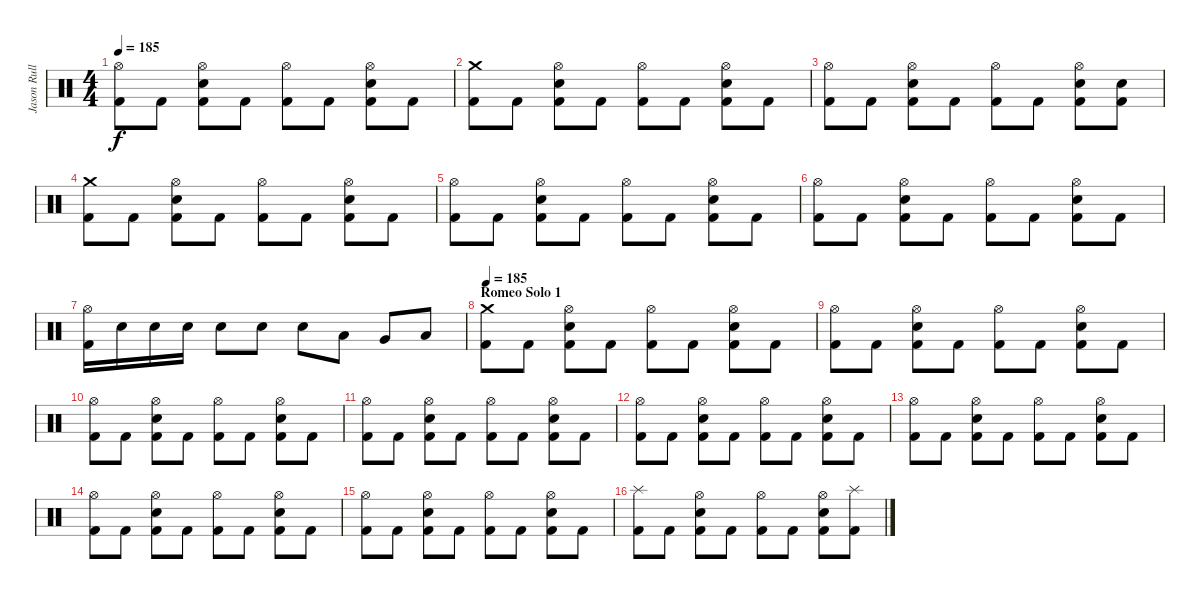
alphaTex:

\track ("Jason Rullo" "Jason Rull") {instrument percussion}
\staff {score}
\articulation defaults
\ts (4 4)
\tempo 185
\clef neutral
\ks c
("Hi-Hat (open)" "Kick (hit) 2").8{dy f} "Kick (hit) 2".8 ("Hi-Hat (open)" "Electric Snare (hit)" "Kick (hit) 2").8 "Kick (hit) 2".8 ("Hi-Hat (open)" "Kick (hit) 2").8 "Kick (hit) 2".8 ("Hi-Hat (open)" "Electric Snare (hit)" "Kick (hit) 2").8 "Kick (hit) 2".8 |
("Crash medium (hit)" "Kick (hit) 2").8 "Kick (hit) 2".8 ("Hi-Hat (open)" "Electric Snare (hit)" "Kick (hit) 2").8 "Kick (hit) 2".8 ("Hi-Hat (open)" "Kick (hit) 2").8 "Kick (hit) 2".8 ("Hi-Hat (open)" "Electric Snare (hit)" "Kick (hit) 2").8 "Kick (hit) 2".8 |
("Hi-Hat (open)" "Kick (hit) 2").8 "Kick (hit) 2".8 ("Hi-Hat (open)" "Electric Snare (hit)" "Kick (hit) 2").8 "Kick (hit) 2".8 ("Hi-Hat (open)" "Kick (hit) 2").8 "Kick (hit) 2".8 ("Hi-Hat (open)" "Electric Snare (hit)" "Kick (hit) 2").8 ("Electric Snare (hit)" "Kick (hit) 2").8 |
("Crash medium (hit)" "Kick (hit) 2").8 "Kick (hit) 2".8 ("Hi-Hat (open)" "Electric Snare (hit)" "Kick (hit) 2").8 "Kick (hit) 2".8 ("Hi-Hat (open)" "Kick (hit) 2").8 "Kick (hit) 2".8 ("Hi-Hat (open)" "Electric Snare (hit)" "Kick (hit) 2").8 "Kick (hit) 2".8 |
("Hi-Hat (open)" "Kick (hit) 2").8 "Kick (hit) 2".8 ("Hi-Hat (open)" "Electric Snare (hit)" "Kick (hit) 2").8 "Kick (hit) 2".8 ("Hi-Hat (open)" "Kick (hit) 2").8 "Kick (hit) 2".8 ("Hi-Hat (open)" "Electric Snare (hit)" "Kick (hit) 2").8 "Kick (hit) 2".8 |
("Hi-Hat (open)" "Kick (hit) 2").8 "Kick (hit) 2".8 ("Hi-Hat (open)" "Electric Snare (hit)" "Kick (hit) 2").8 "Kick (hit) 2".8 ("Hi-Hat (open)" "Kick (hit) 2").8 "Kick (hit) 2".8 ("Hi-Hat (open)" "Electric Snare (hit)" "Kick (hit) 2").8 "Kick (hit) 2".8 |
("Hi-Hat (open)" "Kick (hit) 2").16 "Electric Snare (hit)".16 "Electric Snare (hit)".16 "Electric Snare (hit)".16 "Electric Snare (hit)".8 "Electric Snare (hit)".8 "Electric Snare (hit)".8 "Low Tom (hit)".8 "Very Low Tom (hit)".8 "Low Floor Tom (hit)".8 |
\section ("" "Romeo Solo 1")
\tempo 185
("Crash medium (hit)" "Kick (hit) 2").8 "Kick (hit) 2".8 ("Hi-Hat (open)" "Electric Snare (hit)" "Kick (hit) 2").8 "Kick (hit) 2".8 ("Hi-Hat (open)" "Kick (hit) 2").8 "Kick (hit) 2".8 ("Hi-Hat (open)" "Electric Snare (hit)" "Kick (hit) 2").8 "Kick (hit) 2".8 |
("Hi-Hat (open)" "Kick (hit) 2").8 "Kick (hit) 2".8 ("Hi-Hat (open)" "Electric Snare (hit)" "Kick (hit) 2").8 "Kick (hit) 2".8 ("Hi-Hat (open)" "Kick (hit) 2").8 "Kick (hit) 2".8 ("Hi-Hat (open)" "Electric Snare (hit)" "Kick (hit) 2").8 "Kick (hit) 2".8 |
("Hi-Hat (open)" "Kick (hit) 2").8 "Kick (hit) 2".8 ("Hi-Hat (open)" "Electric Snare (hit)" "Kick (hit) 2").8 "Kick (hit) 2".8 ("Hi-Hat (open)" "Kick (hit) 2").8 "Kick (hit) 2".8 ("Hi-Hat (open)" "Electric Snare (hit)" "Kick (hit) 2").8 "Kick (hit) 2".8 |
("Hi-Hat (open)" "Kick (hit) 2").8 "Kick (hit) 2".8 ("Hi-Hat (open)" "Electric Snare (hit)" "Kick (hit) 2").8 "Kick (hit) 2".8 ("Hi-Hat (open)" "Kick (hit) 2").8 "Kick (hit) 2".8 ("Hi-Hat (open)" "Electric Snare (hit)" "Kick (hit) 2").8 "Kick (hit) 2".8 |
("Hi-Hat (open)" "Kick (hit) 2").8 "Kick (hit) 2".8 ("Hi-Hat (open)" "Electric Snare (hit)" "Kick (hit) 2").8 "Kick (hit) 2".8 ("Hi-Hat (open)" "Kick (hit) 2").8 "Kick (hit) 2".8 ("Hi-Hat (open)" "Electric Snare (hit)" "Kick (hit) 2").8 "Kick (hit) 2".8 |
("Hi-Hat (open)" "Kick (hit) 2").8 "Kick (hit) 2".8 ("Hi-Hat (open)" "Electric Snare (hit)" "Kick (hit) 2").8 "Kick (hit) 2".8 ("Hi-Hat (open)" "Kick (hit) 2").8 "Kick (hit) 2".8 ("Hi-Hat (open)" "Electric Snare (hit)" "Kick (hit) 2").8 "Kick (hit) 2".8 |
("Hi-Hat (open)" "Kick (hit) 2").8 "Kick (hit) 2".8 ("Hi-Hat (open)" "Electric Snare (hit)" "Kick (hit) 2").8 "Kick (hit) 2".8 ("Hi-Hat (open)" "Kick (hit) 2").8 "Kick (hit) 2".8 ("Hi-Hat (open)" "Electric Snare (hit)" "Kick (hit) 2").8 "Kick (hit) 2".8 |
("Hi-Hat (open)" "Kick (hit) 2").8 "Kick (hit) 2".8 ("Hi-Hat (open)" "Electric Snare (hit)" "Kick (hit) 2").8 "Kick (hit) 2".8 ("Hi-Hat (open)" "Kick (hit) 2").8 "Kick (hit) 2".8 ("Hi-Hat (open)" "Electric Snare (hit)" "Kick (hit) 2").8 "Kick (hit) 2".8 |
("Splash (hit)" "Kick (hit) 2").8 "Kick (hit) 2".8 ("Hi-Hat (open)" "Electric Snare (hit)" "Kick (hit) 2").8 "Kick (hit) 2".8 ("Hi-Hat (open)" "Kick (hit) 2").8 "Kick (hit) 2".8 ("Hi-Hat (open)" "Electric Snare (hit)" "Kick (hit) 2").8 ("Splash (hit)" "Kick (hit) 2").8
